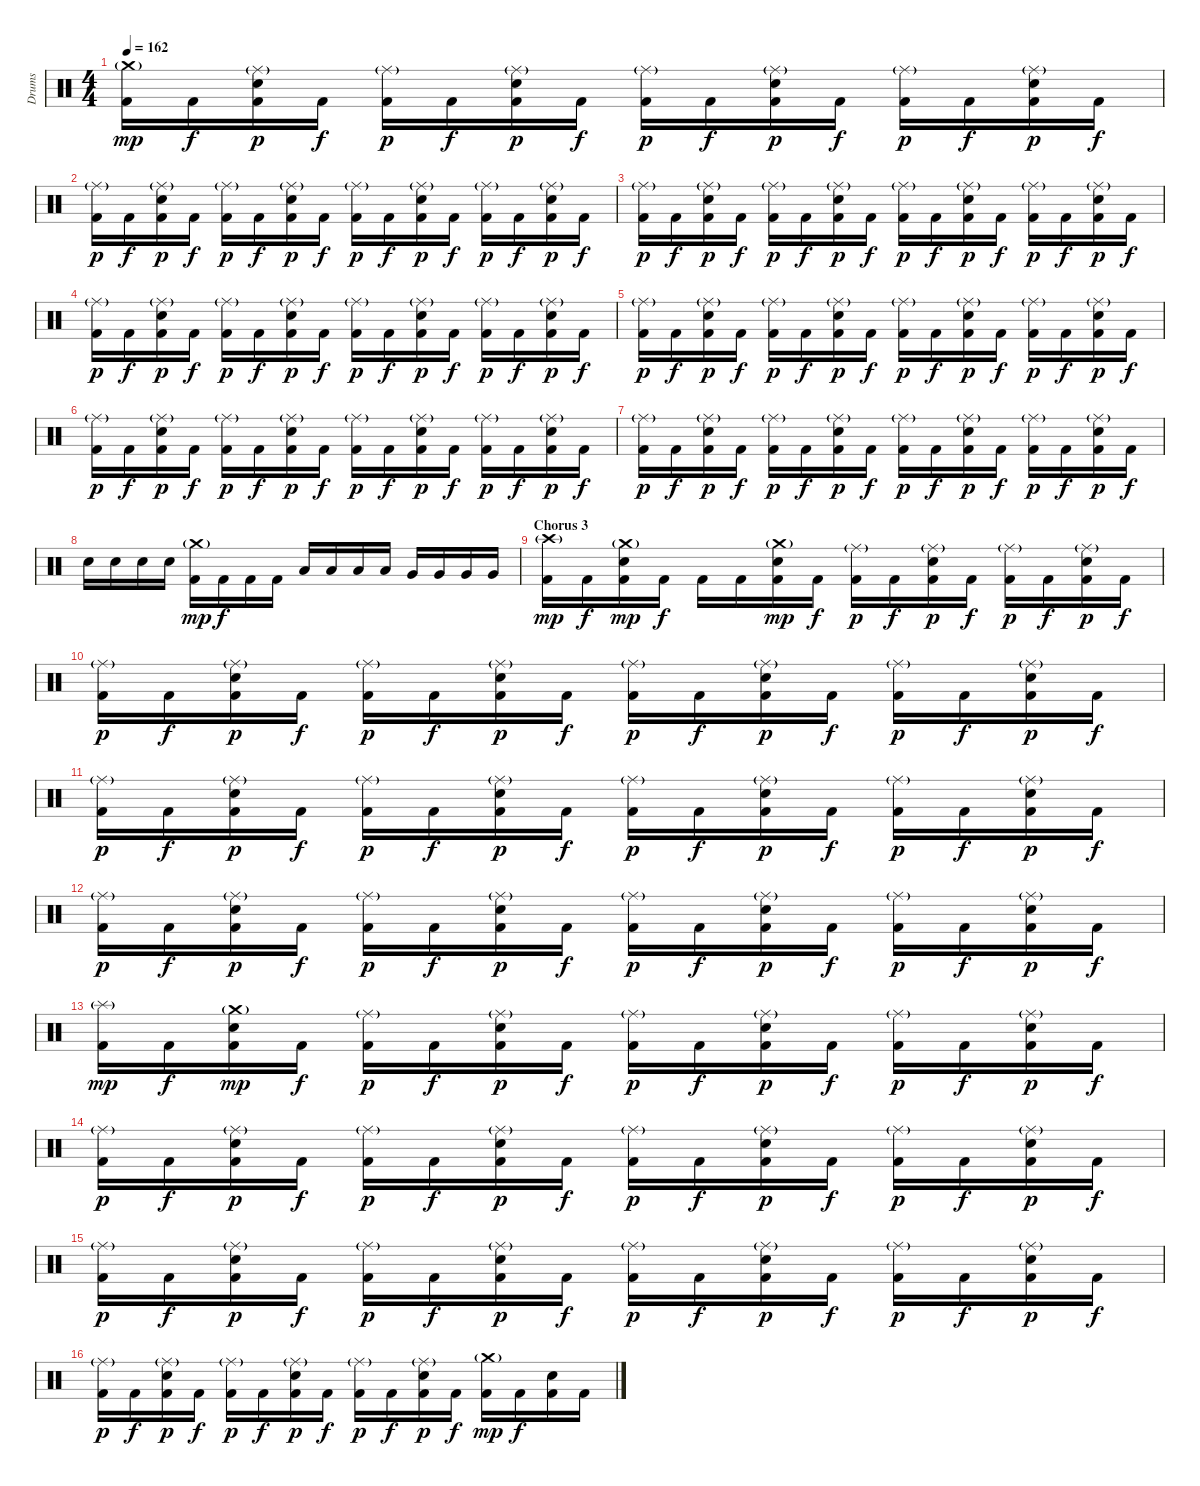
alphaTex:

\track ("Drums" "Drums") {instrument percussion}
\staff {score}
\articulation defaults
\ts (4 4)
\tempo 162
\clef neutral
\ks c
("Crash medium (hit)"{g} "Kick (hit) 2").16{dy mp} "Kick (hit) 2".16{dy f} ("Ride (middle)"{g} "Snare (hit) 2" "Kick (hit) 2").16{dy p} "Kick (hit) 2".16{dy f} ("Ride (middle)"{g} "Kick (hit) 2").16{dy p} "Kick (hit) 2".16{dy f} ("Ride (middle)"{g} "Snare (hit) 2" "Kick (hit) 2").16{dy p} "Kick (hit) 2".16{dy f} ("Ride (middle)"{g} "Kick (hit) 2").16{dy p} "Kick (hit) 2".16{dy f} ("Ride (middle)"{g} "Snare (hit) 2" "Kick (hit) 2").16{dy p} "Kick (hit) 2".16{dy f} ("Ride (middle)"{g} "Kick (hit) 2").16{dy p} "Kick (hit) 2".16{dy f} ("Ride (middle)"{g} "Snare (hit) 2" "Kick (hit) 2").16{dy p} "Kick (hit) 2".16{dy f} |
("Ride (middle)"{g} "Kick (hit) 2").16{dy p} "Kick (hit) 2".16{dy f} ("Ride (middle)"{g} "Snare (hit) 2" "Kick (hit) 2").16{dy p} "Kick (hit) 2".16{dy f} ("Ride (middle)"{g} "Kick (hit) 2").16{dy p} "Kick (hit) 2".16{dy f} ("Ride (middle)"{g} "Snare (hit) 2" "Kick (hit) 2").16{dy p} "Kick (hit) 2".16{dy f} ("Ride (middle)"{g} "Kick (hit) 2").16{dy p} "Kick (hit) 2".16{dy f} ("Ride (middle)"{g} "Snare (hit) 2" "Kick (hit) 2").16{dy p} "Kick (hit) 2".16{dy f} ("Ride (middle)"{g} "Kick (hit) 2").16{dy p} "Kick (hit) 2".16{dy f} ("Ride (middle)"{g} "Snare (hit) 2" "Kick (hit) 2").16{dy p} "Kick (hit) 2".16{dy f} |
("Ride (middle)"{g} "Kick (hit) 2").16{dy p} "Kick (hit) 2".16{dy f} ("Ride (middle)"{g} "Snare (hit) 2" "Kick (hit) 2").16{dy p} "Kick (hit) 2".16{dy f} ("Ride (middle)"{g} "Kick (hit) 2").16{dy p} "Kick (hit) 2".16{dy f} ("Ride (middle)"{g} "Snare (hit) 2" "Kick (hit) 2").16{dy p} "Kick (hit) 2".16{dy f} ("Ride (middle)"{g} "Kick (hit) 2").16{dy p} "Kick (hit) 2".16{dy f} ("Ride (middle)"{g} "Snare (hit) 2" "Kick (hit) 2").16{dy p} "Kick (hit) 2".16{dy f} ("Ride (middle)"{g} "Kick (hit) 2").16{dy p} "Kick (hit) 2".16{dy f} ("Ride (middle)"{g} "Snare (hit) 2" "Kick (hit) 2").16{dy p} "Kick (hit) 2".16{dy f} |
("Ride (middle)"{g} "Kick (hit) 2").16{dy p} "Kick (hit) 2".16{dy f} ("Ride (middle)"{g} "Snare (hit) 2" "Kick (hit) 2").16{dy p} "Kick (hit) 2".16{dy f} ("Ride (middle)"{g} "Kick (hit) 2").16{dy p} "Kick (hit) 2".16{dy f} ("Ride (middle)"{g} "Snare (hit) 2" "Kick (hit) 2").16{dy p} "Kick (hit) 2".16{dy f} ("Ride (middle)"{g} "Kick (hit) 2").16{dy p} "Kick (hit) 2".16{dy f} ("Ride (middle)"{g} "Snare (hit) 2" "Kick (hit) 2").16{dy p} "Kick (hit) 2".16{dy f} ("Ride (middle)"{g} "Kick (hit) 2").16{dy p} "Kick (hit) 2".16{dy f} ("Ride (middle)"{g} "Snare (hit) 2" "Kick (hit) 2").16{dy p} "Kick (hit) 2".16{dy f} |
("Ride (middle)"{g} "Kick (hit) 2").16{dy p} "Kick (hit) 2".16{dy f} ("Ride (middle)"{g} "Snare (hit) 2" "Kick (hit) 2").16{dy p} "Kick (hit) 2".16{dy f} ("Ride (middle)"{g} "Kick (hit) 2").16{dy p} "Kick (hit) 2".16{dy f} ("Ride (middle)"{g} "Snare (hit) 2" "Kick (hit) 2").16{dy p} "Kick (hit) 2".16{dy f} ("Ride (middle)"{g} "Kick (hit) 2").16{dy p} "Kick (hit) 2".16{dy f} ("Ride (middle)"{g} "Snare (hit) 2" "Kick (hit) 2").16{dy p} "Kick (hit) 2".16{dy f} ("Ride (middle)"{g} "Kick (hit) 2").16{dy p} "Kick (hit) 2".16{dy f} ("Ride (middle)"{g} "Snare (hit) 2" "Kick (hit) 2").16{dy p} "Kick (hit) 2".16{dy f} |
("Ride (middle)"{g} "Kick (hit) 2").16{dy p} "Kick (hit) 2".16{dy f} ("Ride (middle)"{g} "Snare (hit) 2" "Kick (hit) 2").16{dy p} "Kick (hit) 2".16{dy f} ("Ride (middle)"{g} "Kick (hit) 2").16{dy p} "Kick (hit) 2".16{dy f} ("Ride (middle)"{g} "Snare (hit) 2" "Kick (hit) 2").16{dy p} "Kick (hit) 2".16{dy f} ("Ride (middle)"{g} "Kick (hit) 2").16{dy p} "Kick (hit) 2".16{dy f} ("Ride (middle)"{g} "Snare (hit) 2" "Kick (hit) 2").16{dy p} "Kick (hit) 2".16{dy f} ("Ride (middle)"{g} "Kick (hit) 2").16{dy p} "Kick (hit) 2".16{dy f} ("Ride (middle)"{g} "Snare (hit) 2" "Kick (hit) 2").16{dy p} "Kick (hit) 2".16{dy f} |
("Ride (middle)"{g} "Kick (hit) 2").16{dy p} "Kick (hit) 2".16{dy f} ("Ride (middle)"{g} "Snare (hit) 2" "Kick (hit) 2").16{dy p} "Kick (hit) 2".16{dy f} ("Ride (middle)"{g} "Kick (hit) 2").16{dy p} "Kick (hit) 2".16{dy f} ("Ride (middle)"{g} "Snare (hit) 2" "Kick (hit) 2").16{dy p} "Kick (hit) 2".16{dy f} ("Ride (middle)"{g} "Kick (hit) 2").16{dy p} "Kick (hit) 2".16{dy f} ("Ride (middle)"{g} "Snare (hit) 2" "Kick (hit) 2").16{dy p} "Kick (hit) 2".16{dy f} ("Ride (middle)"{g} "Kick (hit) 2").16{dy p} "Kick (hit) 2".16{dy f} ("Ride (middle)"{g} "Snare (hit) 2" "Kick (hit) 2").16{dy p} "Kick (hit) 2".16{dy f} |
"Snare (hit) 2".16 "Snare (hit) 2".16 "Snare (hit) 2".16 "Snare (hit) 2".16 ("Crash medium (hit)"{g} "Kick (hit) 2").16{dy mp} "Kick (hit) 2".16{dy f} "Kick (hit) 2".16 "Kick (hit) 2".16 "Low Tom (hit)".16 "Low Tom (hit)".16 "Low Tom (hit)".16 "Low Tom (hit)".16 "Very Low Tom (hit)".16 "Very Low Tom (hit)".16 "Very Low Tom (hit)".16 "Very Low Tom (hit)".16 |
\section ("" "Chorus 3")
("Crash high (hit)"{g} "Kick (hit) 2").16{dy mp} "Kick (hit) 2".16{dy f} ("Crash medium (hit)"{g} "Snare (hit) 2" "Kick (hit) 2").16{dy mp} "Kick (hit) 2".16{dy f} "Kick (hit) 2".16 "Kick (hit) 2".16 ("Crash medium (hit)"{g} "Snare (hit) 2" "Kick (hit) 2").16{dy mp} "Kick (hit) 2".16{dy f} ("Ride (middle)"{g} "Kick (hit) 2").16{dy p} "Kick (hit) 2".16{dy f} ("Ride (middle)"{g} "Snare (hit) 2" "Kick (hit) 2").16{dy p} "Kick (hit) 2".16{dy f} ("Ride (middle)"{g} "Kick (hit) 2").16{dy p} "Kick (hit) 2".16{dy f} ("Ride (middle)"{g} "Snare (hit) 2" "Kick (hit) 2").16{dy p} "Kick (hit) 2".16{dy f} |
("Ride (middle)"{g} "Kick (hit) 2").16{dy p} "Kick (hit) 2".16{dy f} ("Ride (middle)"{g} "Snare (hit) 2" "Kick (hit) 2").16{dy p} "Kick (hit) 2".16{dy f} ("Ride (middle)"{g} "Kick (hit) 2").16{dy p} "Kick (hit) 2".16{dy f} ("Ride (middle)"{g} "Snare (hit) 2" "Kick (hit) 2").16{dy p} "Kick (hit) 2".16{dy f} ("Ride (middle)"{g} "Kick (hit) 2").16{dy p} "Kick (hit) 2".16{dy f} ("Ride (middle)"{g} "Snare (hit) 2" "Kick (hit) 2").16{dy p} "Kick (hit) 2".16{dy f} ("Ride (middle)"{g} "Kick (hit) 2").16{dy p} "Kick (hit) 2".16{dy f} ("Ride (middle)"{g} "Snare (hit) 2" "Kick (hit) 2").16{dy p} "Kick (hit) 2".16{dy f} |
("Ride (middle)"{g} "Kick (hit) 2").16{dy p} "Kick (hit) 2".16{dy f} ("Ride (middle)"{g} "Snare (hit) 2" "Kick (hit) 2").16{dy p} "Kick (hit) 2".16{dy f} ("Ride (middle)"{g} "Kick (hit) 2").16{dy p} "Kick (hit) 2".16{dy f} ("Ride (middle)"{g} "Snare (hit) 2" "Kick (hit) 2").16{dy p} "Kick (hit) 2".16{dy f} ("Ride (middle)"{g} "Kick (hit) 2").16{dy p} "Kick (hit) 2".16{dy f} ("Ride (middle)"{g} "Snare (hit) 2" "Kick (hit) 2").16{dy p} "Kick (hit) 2".16{dy f} ("Ride (middle)"{g} "Kick (hit) 2").16{dy p} "Kick (hit) 2".16{dy f} ("Ride (middle)"{g} "Snare (hit) 2" "Kick (hit) 2").16{dy p} "Kick (hit) 2".16{dy f} |
("Ride (middle)"{g} "Kick (hit) 2").16{dy p} "Kick (hit) 2".16{dy f} ("Ride (middle)"{g} "Snare (hit) 2" "Kick (hit) 2").16{dy p} "Kick (hit) 2".16{dy f} ("Ride (middle)"{g} "Kick (hit) 2").16{dy p} "Kick (hit) 2".16{dy f} ("Ride (middle)"{g} "Snare (hit) 2" "Kick (hit) 2").16{dy p} "Kick (hit) 2".16{dy f} ("Ride (middle)"{g} "Kick (hit) 2").16{dy p} "Kick (hit) 2".16{dy f} ("Ride (middle)"{g} "Snare (hit) 2" "Kick (hit) 2").16{dy p} "Kick (hit) 2".16{dy f} ("Ride (middle)"{g} "Kick (hit) 2").16{dy p} "Kick (hit) 2".16{dy f} ("Ride (middle)"{g} "Snare (hit) 2" "Kick (hit) 2").16{dy p} "Kick (hit) 2".16{dy f} |
("Splash (hit)"{g} "Kick (hit) 2").16{dy mp} "Kick (hit) 2".16{dy f} ("Crash medium (hit)"{g} "Snare (hit) 2" "Kick (hit) 2").16{dy mp} "Kick (hit) 2".16{dy f} ("Ride (middle)"{g} "Kick (hit) 2").16{dy p} "Kick (hit) 2".16{dy f} ("Ride (middle)"{g} "Snare (hit) 2" "Kick (hit) 2").16{dy p} "Kick (hit) 2".16{dy f} ("Ride (middle)"{g} "Kick (hit) 2").16{dy p} "Kick (hit) 2".16{dy f} ("Ride (middle)"{g} "Snare (hit) 2" "Kick (hit) 2").16{dy p} "Kick (hit) 2".16{dy f} ("Ride (middle)"{g} "Kick (hit) 2").16{dy p} "Kick (hit) 2".16{dy f} ("Ride (middle)"{g} "Snare (hit) 2" "Kick (hit) 2").16{dy p} "Kick (hit) 2".16{dy f} |
("Ride (middle)"{g} "Kick (hit) 2").16{dy p} "Kick (hit) 2".16{dy f} ("Ride (middle)"{g} "Snare (hit) 2" "Kick (hit) 2").16{dy p} "Kick (hit) 2".16{dy f} ("Ride (middle)"{g} "Kick (hit) 2").16{dy p} "Kick (hit) 2".16{dy f} ("Ride (middle)"{g} "Snare (hit) 2" "Kick (hit) 2").16{dy p} "Kick (hit) 2".16{dy f} ("Ride (middle)"{g} "Kick (hit) 2").16{dy p} "Kick (hit) 2".16{dy f} ("Ride (middle)"{g} "Snare (hit) 2" "Kick (hit) 2").16{dy p} "Kick (hit) 2".16{dy f} ("Ride (middle)"{g} "Kick (hit) 2").16{dy p} "Kick (hit) 2".16{dy f} ("Ride (middle)"{g} "Snare (hit) 2" "Kick (hit) 2").16{dy p} "Kick (hit) 2".16{dy f} |
("Ride (middle)"{g} "Kick (hit) 2").16{dy p} "Kick (hit) 2".16{dy f} ("Ride (middle)"{g} "Snare (hit) 2" "Kick (hit) 2").16{dy p} "Kick (hit) 2".16{dy f} ("Ride (middle)"{g} "Kick (hit) 2").16{dy p} "Kick (hit) 2".16{dy f} ("Ride (middle)"{g} "Snare (hit) 2" "Kick (hit) 2").16{dy p} "Kick (hit) 2".16{dy f} ("Ride (middle)"{g} "Kick (hit) 2").16{dy p} "Kick (hit) 2".16{dy f} ("Ride (middle)"{g} "Snare (hit) 2" "Kick (hit) 2").16{dy p} "Kick (hit) 2".16{dy f} ("Ride (middle)"{g} "Kick (hit) 2").16{dy p} "Kick (hit) 2".16{dy f} ("Ride (middle)"{g} "Snare (hit) 2" "Kick (hit) 2").16{dy p} "Kick (hit) 2".16{dy f} |
("Ride (middle)"{g} "Kick (hit) 2").16{dy p} "Kick (hit) 2".16{dy f} ("Ride (middle)"{g} "Snare (hit) 2" "Kick (hit) 2").16{dy p} "Kick (hit) 2".16{dy f} ("Ride (middle)"{g} "Kick (hit) 2").16{dy p} "Kick (hit) 2".16{dy f} ("Ride (middle)"{g} "Snare (hit) 2" "Kick (hit) 2").16{dy p} "Kick (hit) 2".16{dy f} ("Ride (middle)"{g} "Kick (hit) 2").16{dy p} "Kick (hit) 2".16{dy f} ("Ride (middle)"{g} "Snare (hit) 2" "Kick (hit) 2").16{dy p} "Kick (hit) 2".16{dy f} ("Crash medium (hit)"{g} "Kick (hit) 2").16{dy mp} "Kick (hit) 2".16{dy f} ("Snare (hit) 2" "Kick (hit) 2").16 "Kick (hit) 2".16
